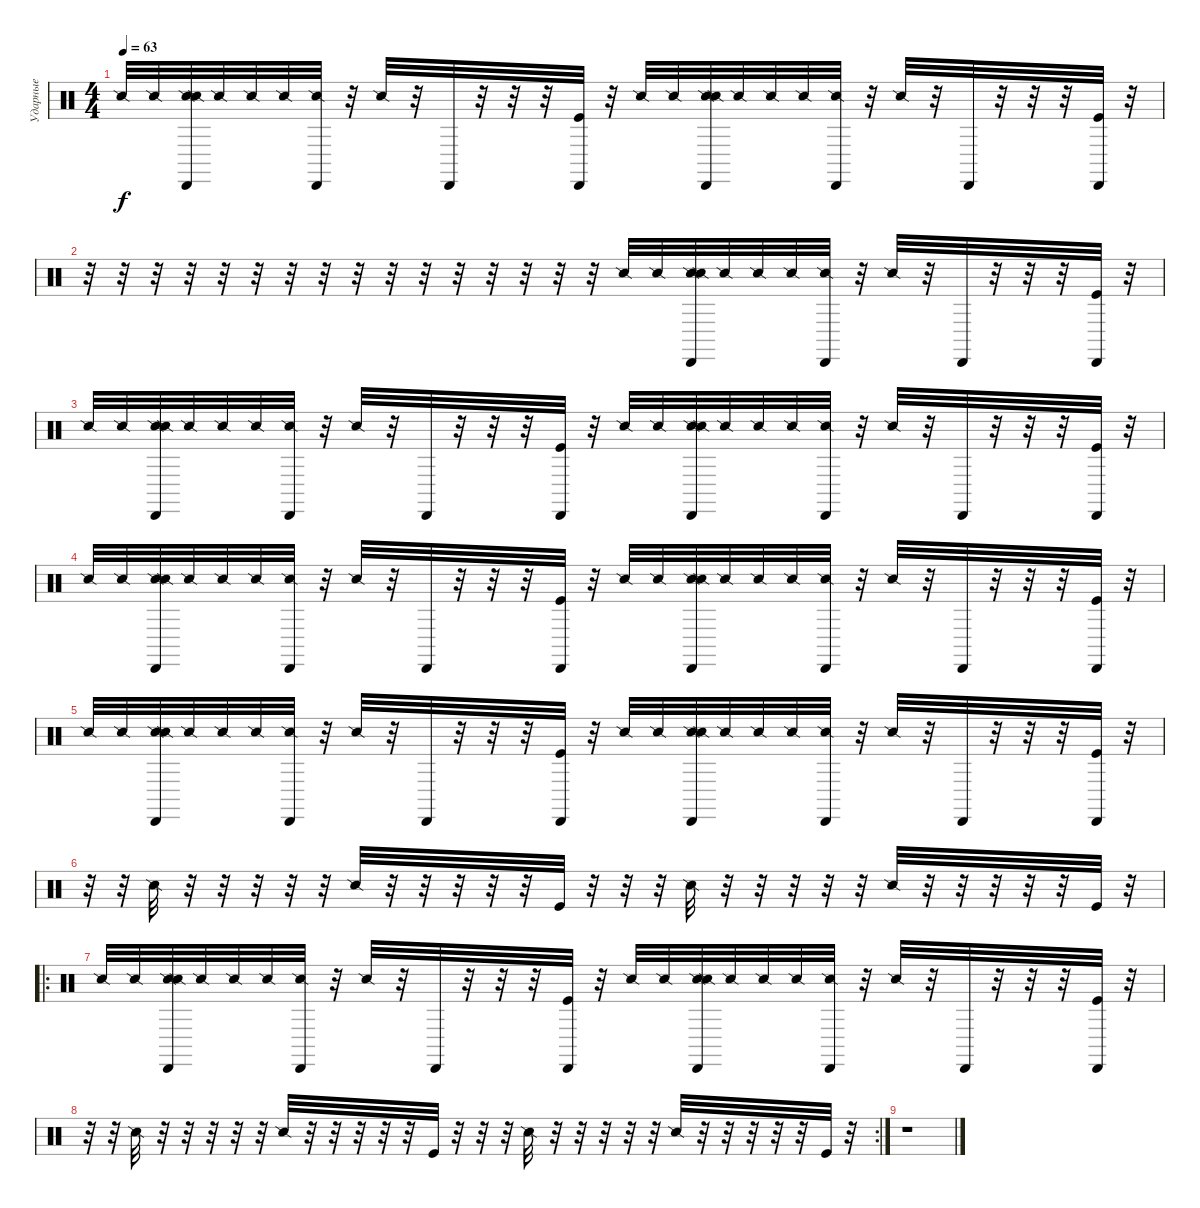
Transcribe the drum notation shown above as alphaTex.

\track ("Ударные" "Ударные") {instrument percussion}
\staff {score}
\articulation defaults
\ts (4 4)
\tempo 63
\clef neutral
\ks c "Snare (side stick) 2".32{dy f} "Snare (side stick) 2".32
("Snare (side stick) 2" "Snare (side stick) 2" "Cabasa (hit)").32 "Snare (side stick) 2".32 "Snare (side stick) 2".32 "Snare (side stick) 2".32 ("Snare (side stick) 2" "Cabasa (hit)").32 r.32 "Snare (side stick) 2".32 r.32 "Cabasa (hit)".32 r.32 r.32 r.32 ("Kick (hit)" "Cabasa (hit)").32 r.32 "Snare (side stick) 2".32 "Snare (side stick) 2".32 ("Snare (side stick) 2" "Snare (side stick) 2" "Cabasa (hit)").32 "Snare (side stick) 2".32 "Snare (side stick) 2".32 "Snare (side stick) 2".32 ("Snare (side stick) 2" "Cabasa (hit)").32 r.32 "Snare (side stick) 2".32 r.32 "Cabasa (hit)".32 r.32 r.32 r.32 ("Kick (hit)" "Cabasa (hit)").32 r.32 |
r.32 r.32 r.32 r.32 r.32 r.32 r.32 r.32 r.32 r.32 r.32 r.32 r.32 r.32 r.32 r.32 "Snare (side stick) 2".32 "Snare (side stick) 2".32 ("Snare (side stick) 2" "Snare (side stick) 2" "Cabasa (hit)").32 "Snare (side stick) 2".32 "Snare (side stick) 2".32 "Snare (side stick) 2".32 ("Snare (side stick) 2" "Cabasa (hit)").32 r.32 "Snare (side stick) 2".32 r.32 "Cabasa (hit)".32 r.32 r.32 r.32 ("Kick (hit)" "Cabasa (hit)").32 r.32 |
"Snare (side stick) 2".32 "Snare (side stick) 2".32 ("Snare (side stick) 2" "Snare (side stick) 2" "Cabasa (hit)").32 "Snare (side stick) 2".32 "Snare (side stick) 2".32 "Snare (side stick) 2".32 ("Snare (side stick) 2" "Cabasa (hit)").32 r.32 "Snare (side stick) 2".32 r.32 "Cabasa (hit)".32 r.32 r.32 r.32 ("Kick (hit)" "Cabasa (hit)").32 r.32 "Snare (side stick) 2".32 "Snare (side stick) 2".32 ("Snare (side stick) 2" "Snare (side stick) 2" "Cabasa (hit)").32 "Snare (side stick) 2".32 "Snare (side stick) 2".32 "Snare (side stick) 2".32 ("Snare (side stick) 2" "Cabasa (hit)").32 r.32 "Snare (side stick) 2".32 r.32 "Cabasa (hit)".32 r.32 r.32 r.32 ("Kick (hit)" "Cabasa (hit)").32 r.32 |
"Snare (side stick) 2".32 "Snare (side stick) 2".32 ("Snare (side stick) 2" "Snare (side stick) 2" "Cabasa (hit)").32 "Snare (side stick) 2".32 "Snare (side stick) 2".32 "Snare (side stick) 2".32 ("Snare (side stick) 2" "Cabasa (hit)").32 r.32 "Snare (side stick) 2".32 r.32 "Cabasa (hit)".32 r.32 r.32 r.32 ("Kick (hit)" "Cabasa (hit)").32 r.32 "Snare (side stick) 2".32 "Snare (side stick) 2".32 ("Snare (side stick) 2" "Snare (side stick) 2" "Cabasa (hit)").32 "Snare (side stick) 2".32 "Snare (side stick) 2".32 "Snare (side stick) 2".32 ("Snare (side stick) 2" "Cabasa (hit)").32 r.32 "Snare (side stick) 2".32 r.32 "Cabasa (hit)".32 r.32 r.32 r.32 ("Kick (hit)" "Cabasa (hit)").32 r.32 |
"Snare (side stick) 2".32 "Snare (side stick) 2".32 ("Snare (side stick) 2" "Snare (side stick) 2" "Cabasa (hit)").32 "Snare (side stick) 2".32 "Snare (side stick) 2".32 "Snare (side stick) 2".32 ("Snare (side stick) 2" "Cabasa (hit)").32 r.32 "Snare (side stick) 2".32 r.32 "Cabasa (hit)".32 r.32 r.32 r.32 ("Kick (hit)" "Cabasa (hit)").32 r.32 "Snare (side stick) 2".32 "Snare (side stick) 2".32 ("Snare (side stick) 2" "Snare (side stick) 2" "Cabasa (hit)").32 "Snare (side stick) 2".32 "Snare (side stick) 2".32 "Snare (side stick) 2".32 ("Snare (side stick) 2" "Cabasa (hit)").32 r.32 "Snare (side stick) 2".32 r.32 "Cabasa (hit)".32 r.32 r.32 r.32 ("Kick (hit)" "Cabasa (hit)").32 r.32 |
r.32 r.32 "Snare (side stick) 2".32 r.32 r.32 r.32 r.32 r.32 "Snare (side stick) 2".32 r.32 r.32 r.32 r.32 r.32 "Kick (hit)".32 r.32 r.32 r.32 "Snare (side stick) 2".32 r.32 r.32 r.32 r.32 r.32 "Snare (side stick) 2".32 r.32 r.32 r.32 r.32 r.32 "Kick (hit)".32 r.32 |
\ro "Snare (side stick) 2".32 "Snare (side stick) 2".32
("Snare (side stick) 2" "Snare (side stick) 2" "Cabasa (hit)").32 "Snare (side stick) 2".32 "Snare (side stick) 2".32 "Snare (side stick) 2".32 ("Snare (side stick) 2" "Cabasa (hit)").32 r.32 "Snare (side stick) 2".32 r.32 "Cabasa (hit)".32 r.32 r.32 r.32 ("Kick (hit)" "Cabasa (hit)").32 r.32 "Snare (side stick) 2".32 "Snare (side stick) 2".32 ("Snare (side stick) 2" "Snare (side stick) 2" "Cabasa (hit)").32 "Snare (side stick) 2".32 "Snare (side stick) 2".32 "Snare (side stick) 2".32 ("Snare (side stick) 2" "Cabasa (hit)").32 r.32 "Snare (side stick) 2".32 r.32 "Cabasa (hit)".32 r.32 r.32 r.32 ("Kick (hit)" "Cabasa (hit)").32 r.32 |
\rc 2
r.32 r.32 "Snare (side stick) 2".32 r.32 r.32 r.32 r.32 r.32 "Snare (side stick) 2".32 r.32 r.32 r.32 r.32 r.32 "Kick (hit)".32 r.32 r.32 r.32 "Snare (side stick) 2".32 r.32 r.32 r.32 r.32 r.32 "Snare (side stick) 2".32 r.32 r.32 r.32 r.32 r.32 "Kick (hit)".32 r.32 |
r.1
